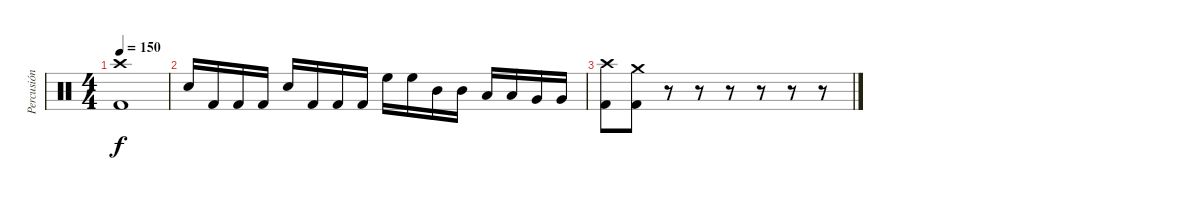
\track ("Percusión" "Percusión") {instrument percussion}
\staff {score}
\articulation defaults
\ts (4 4)
\tempo 150
\clef neutral
\ks c
("Crash high (hit)" "Kick (hit) 2").1{dy f} |
"Electric Snare (hit)".16 "Kick (hit) 2".16 "Kick (hit) 2".16 "Kick (hit) 2".16 "Electric Snare (hit)".16 "Kick (hit) 2".16 "Kick (hit) 2".16 "Kick (hit) 2".16 "High Floor Tom (hit)".16 "High Floor Tom (hit)".16 "Mid Tom (hit)".16 "Mid Tom (hit)".16 "Low Tom (hit)".16 "Low Tom (hit)".16 "Very Low Tom (hit)".16 "Very Low Tom (hit)".16 |
("Crash high (hit)" "Kick (hit) 2").8 ("Crash medium (hit)" "Kick (hit) 2").8 r.8 r.8 r.8 r.8 r.8 r.8
